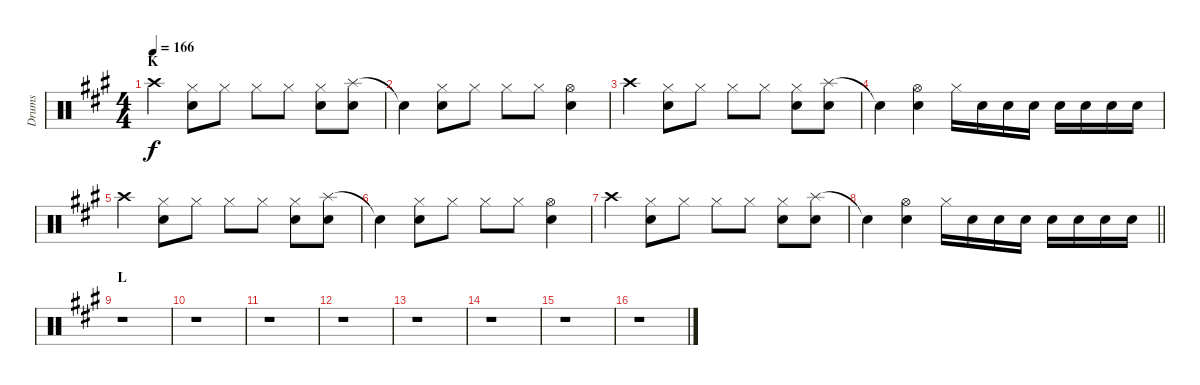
\track ("Drums" "Drums") {instrument percussion}
\staff {score}
\articulation defaults
\ts (4 4)
\section ("" "K")
\tempo 166
\clef neutral
\ks a "Crash high (hit)".4{dy f}
("Hi-Hat (closed)" "Snare (hit) 2").8 "Hi-Hat (closed)".8 "Hi-Hat (closed)".8 "Hi-Hat (closed)".8 ("Hi-Hat (closed)" "Snare (hit) 2").8 ("Splash (hit)" "Snare (hit) 2").8 |
"Snare (hit)"{t}.4 ("Hi-Hat (closed)" "Snare (hit) 2").8 "Hi-Hat (closed)".8 "Hi-Hat (closed)".8 "Hi-Hat (closed)".8 ("Hi-Hat (open)" "Snare (hit) 2").4 |
"Crash high (hit)".4 ("Hi-Hat (closed)" "Snare (hit) 2").8 "Hi-Hat (closed)".8 "Hi-Hat (closed)".8 "Hi-Hat (closed)".8 ("Hi-Hat (closed)" "Snare (hit) 2").8 ("Splash (hit)" "Snare (hit) 2").8 |
"Snare (hit)"{t}.4 ("Hi-Hat (open)" "Snare (hit) 2").4 "Hi-Hat (closed)".16 "Snare (hit) 2".16 "Snare (hit) 2".16 "Snare (hit) 2".16 "Snare (hit) 2".16 "Snare (hit) 2".16 "Snare (hit) 2".16 "Snare (hit) 2".16 |
"Crash high (hit)".4 ("Hi-Hat (closed)" "Snare (hit) 2").8 "Hi-Hat (closed)".8 "Hi-Hat (closed)".8 "Hi-Hat (closed)".8 ("Hi-Hat (closed)" "Snare (hit) 2").8 ("Splash (hit)" "Snare (hit) 2").8 |
"Snare (hit)"{t}.4 ("Hi-Hat (closed)" "Snare (hit) 2").8 "Hi-Hat (closed)".8 "Hi-Hat (closed)".8 "Hi-Hat (closed)".8 ("Hi-Hat (open)" "Snare (hit) 2").4 |
"Crash high (hit)".4 ("Hi-Hat (closed)" "Snare (hit) 2").8 "Hi-Hat (closed)".8 "Hi-Hat (closed)".8 "Hi-Hat (closed)".8 ("Hi-Hat (closed)" "Snare (hit) 2").8 ("Splash (hit)" "Snare (hit) 2").8 |
\barLineRight lightlight "Snare (hit)"{t}.4
("Hi-Hat (open)" "Snare (hit) 2").4 "Hi-Hat (closed)".16 "Snare (hit) 2".16 "Snare (hit) 2".16 "Snare (hit) 2".16 "Snare (hit) 2".16 "Snare (hit) 2".16 "Snare (hit) 2".16 "Snare (hit) 2".16 |
\section ("" "L")
r.1 |
r.1 |
r.1 |
r.1 |
r.1 |
r.1 |
r.1 |
r.1
